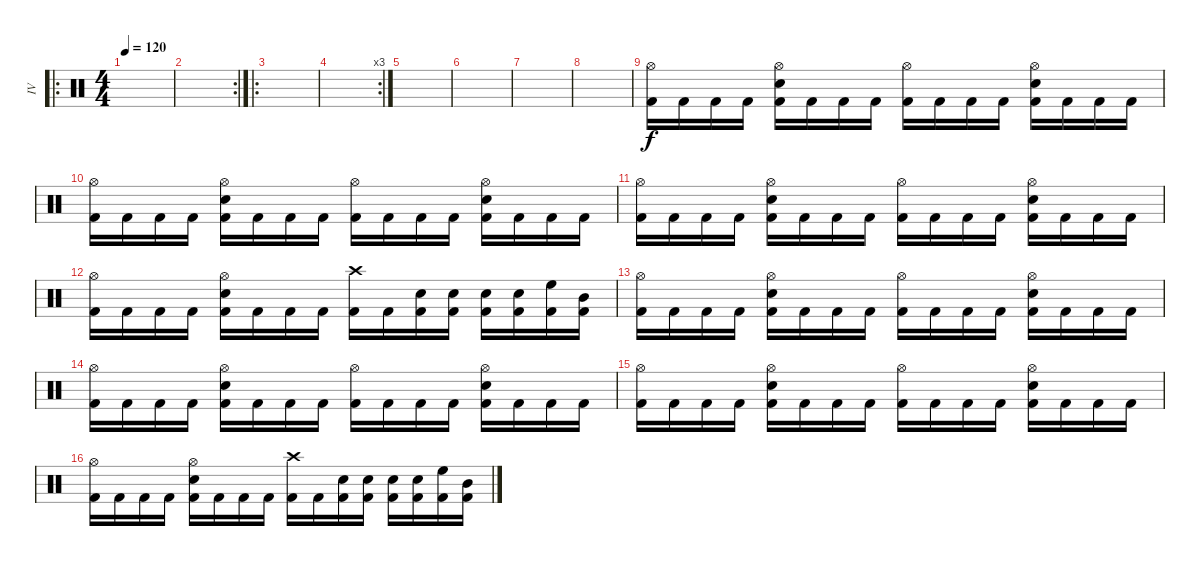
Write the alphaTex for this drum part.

\track ("IV" "IV") {instrument percussion}
\staff {score}
\articulation defaults
\ro
\ts (4 4)
\tempo 120
\clef neutral
\ks c
|
\rc 2
|
\ro
|
\rc 3
|
|
|
|
|
("Hi-Hat (open)" "Kick (hit) 2").16 "Kick (hit) 2".16 "Kick (hit) 2".16 "Kick (hit) 2".16 ("Hi-Hat (open)" "Snare (hit) 2" "Kick (hit) 2").16 "Kick (hit) 2".16 "Kick (hit) 2".16 "Kick (hit) 2".16 ("Hi-Hat (open)" "Kick (hit) 2").16 "Kick (hit) 2".16 "Kick (hit) 2".16 "Kick (hit) 2".16 ("Hi-Hat (open)" "Snare (hit) 2" "Kick (hit) 2").16 "Kick (hit) 2".16 "Kick (hit) 2".16 "Kick (hit) 2".16 |
("Hi-Hat (open)" "Kick (hit) 2").16 "Kick (hit) 2".16 "Kick (hit) 2".16 "Kick (hit) 2".16 ("Hi-Hat (open)" "Snare (hit) 2" "Kick (hit) 2").16 "Kick (hit) 2".16 "Kick (hit) 2".16 "Kick (hit) 2".16 ("Hi-Hat (open)" "Kick (hit) 2").16 "Kick (hit) 2".16 "Kick (hit) 2".16 "Kick (hit) 2".16 ("Hi-Hat (open)" "Snare (hit) 2" "Kick (hit) 2").16 "Kick (hit) 2".16 "Kick (hit) 2".16 "Kick (hit) 2".16 |
("Hi-Hat (open)" "Kick (hit) 2").16 "Kick (hit) 2".16 "Kick (hit) 2".16 "Kick (hit) 2".16 ("Hi-Hat (open)" "Snare (hit) 2" "Kick (hit) 2").16 "Kick (hit) 2".16 "Kick (hit) 2".16 "Kick (hit) 2".16 ("Hi-Hat (open)" "Kick (hit) 2").16 "Kick (hit) 2".16 "Kick (hit) 2".16 "Kick (hit) 2".16 ("Hi-Hat (open)" "Snare (hit) 2" "Kick (hit) 2").16 "Kick (hit) 2".16 "Kick (hit) 2".16 "Kick (hit) 2".16 |
("Hi-Hat (open)" "Kick (hit) 2").16 "Kick (hit) 2".16 "Kick (hit) 2".16 "Kick (hit) 2".16 ("Hi-Hat (open)" "Snare (hit) 2" "Kick (hit) 2").16 "Kick (hit) 2".16 "Kick (hit) 2".16 "Kick (hit) 2".16 ("Crash high (hit)" "Kick (hit) 2").16 "Kick (hit) 2".16 ("Snare (hit) 2" "Kick (hit) 2").16 ("Snare (hit) 2" "Kick (hit) 2").16 ("Snare (hit) 2" "Kick (hit) 2").16 ("Snare (hit) 2" "Kick (hit) 2").16 ("High Floor Tom (hit)" "Kick (hit) 2").16 ("Mid Tom (hit)" "Kick (hit) 2").16 |
("Hi-Hat (open)" "Kick (hit) 2").16 "Kick (hit) 2".16 "Kick (hit) 2".16 "Kick (hit) 2".16 ("Hi-Hat (open)" "Snare (hit) 2" "Kick (hit) 2").16 "Kick (hit) 2".16 "Kick (hit) 2".16 "Kick (hit) 2".16 ("Hi-Hat (open)" "Kick (hit) 2").16 "Kick (hit) 2".16 "Kick (hit) 2".16 "Kick (hit) 2".16 ("Hi-Hat (open)" "Snare (hit) 2" "Kick (hit) 2").16 "Kick (hit) 2".16 "Kick (hit) 2".16 "Kick (hit) 2".16 |
("Hi-Hat (open)" "Kick (hit) 2").16 "Kick (hit) 2".16 "Kick (hit) 2".16 "Kick (hit) 2".16 ("Hi-Hat (open)" "Snare (hit) 2" "Kick (hit) 2").16 "Kick (hit) 2".16 "Kick (hit) 2".16 "Kick (hit) 2".16 ("Hi-Hat (open)" "Kick (hit) 2").16 "Kick (hit) 2".16 "Kick (hit) 2".16 "Kick (hit) 2".16 ("Hi-Hat (open)" "Snare (hit) 2" "Kick (hit) 2").16 "Kick (hit) 2".16 "Kick (hit) 2".16 "Kick (hit) 2".16 |
("Hi-Hat (open)" "Kick (hit) 2").16 "Kick (hit) 2".16 "Kick (hit) 2".16 "Kick (hit) 2".16 ("Hi-Hat (open)" "Snare (hit) 2" "Kick (hit) 2").16 "Kick (hit) 2".16 "Kick (hit) 2".16 "Kick (hit) 2".16 ("Hi-Hat (open)" "Kick (hit) 2").16 "Kick (hit) 2".16 "Kick (hit) 2".16 "Kick (hit) 2".16 ("Hi-Hat (open)" "Snare (hit) 2" "Kick (hit) 2").16 "Kick (hit) 2".16 "Kick (hit) 2".16 "Kick (hit) 2".16 |
("Hi-Hat (open)" "Kick (hit) 2").16 "Kick (hit) 2".16 "Kick (hit) 2".16 "Kick (hit) 2".16 ("Hi-Hat (open)" "Snare (hit) 2" "Kick (hit) 2").16 "Kick (hit) 2".16 "Kick (hit) 2".16 "Kick (hit) 2".16 ("Crash high (hit)" "Kick (hit) 2").16 "Kick (hit) 2".16 ("Snare (hit) 2" "Kick (hit) 2").16 ("Snare (hit) 2" "Kick (hit) 2").16 ("Snare (hit) 2" "Kick (hit) 2").16 ("Snare (hit) 2" "Kick (hit) 2").16 ("High Floor Tom (hit)" "Kick (hit) 2").16 ("Mid Tom (hit)" "Kick (hit) 2").16
